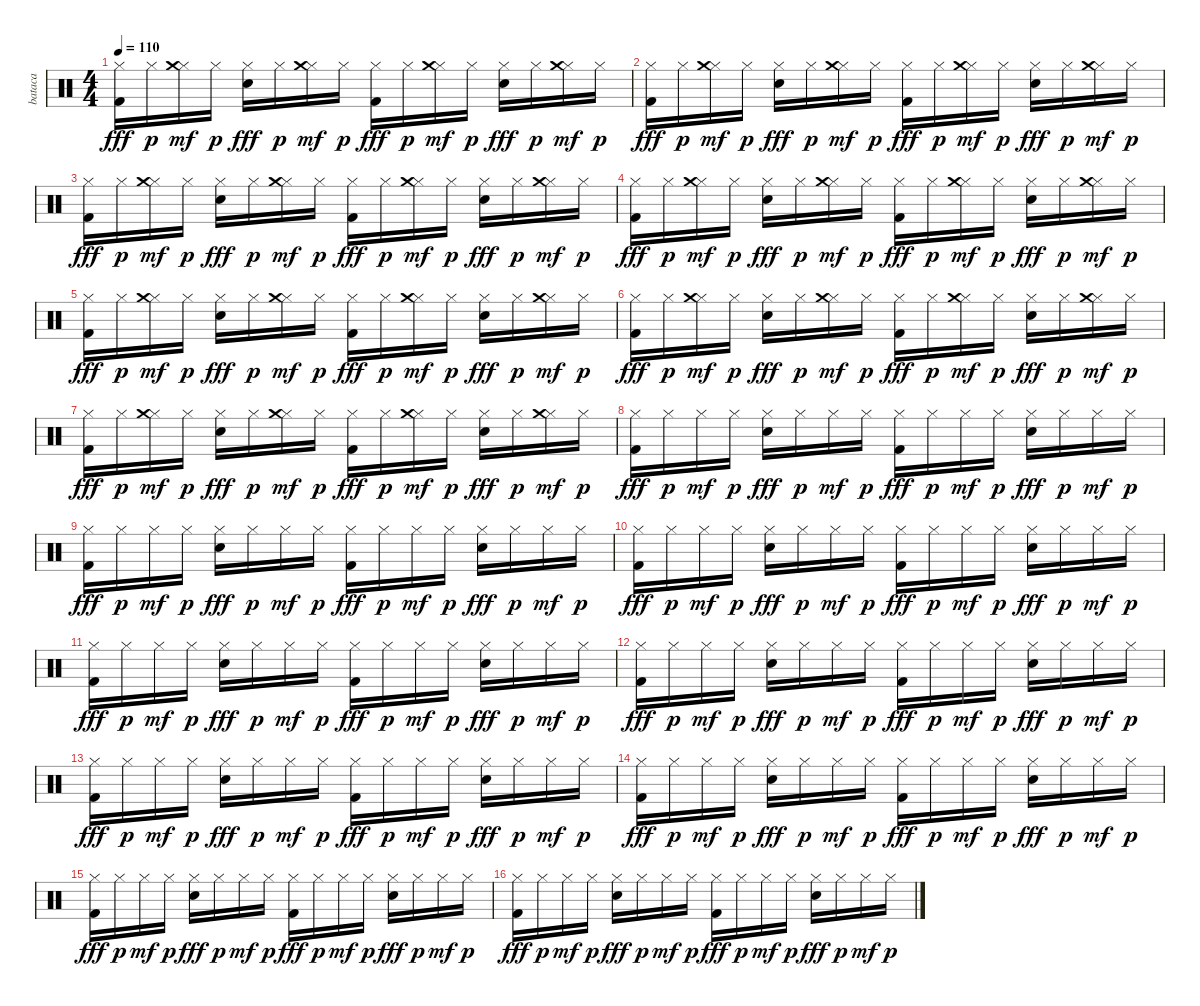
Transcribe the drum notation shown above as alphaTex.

\track ("bataca" "bataca") {instrument percussion}
\staff {score}
\articulation defaults
\ts (4 4)
\tempo 110
\clef neutral
\ks c
("Hi-Hat (closed)" "Kick (hit) 2").16{dy fff} "Hi-Hat (closed)".16{dy p} ("Hi-Hat (closed)" "Crash medium (hit)").16{dy mf} "Hi-Hat (closed)".16{dy p} ("Hi-Hat (closed)" "Electric Snare (hit)").16{dy fff} "Hi-Hat (closed)".16{dy p} ("Hi-Hat (closed)" "Crash medium (hit)").16{dy mf} "Hi-Hat (closed)".16{dy p} ("Hi-Hat (closed)" "Kick (hit) 2").16{dy fff} "Hi-Hat (closed)".16{dy p} ("Hi-Hat (closed)" "Crash medium (hit)").16{dy mf} "Hi-Hat (closed)".16{dy p} ("Hi-Hat (closed)" "Electric Snare (hit)").16{dy fff} "Hi-Hat (closed)".16{dy p} ("Hi-Hat (closed)" "Crash medium (hit)").16{dy mf} "Hi-Hat (closed)".16{dy p} |
("Hi-Hat (closed)" "Kick (hit) 2").16{dy fff} "Hi-Hat (closed)".16{dy p} ("Hi-Hat (closed)" "Crash medium (hit)").16{dy mf} "Hi-Hat (closed)".16{dy p} ("Hi-Hat (closed)" "Electric Snare (hit)").16{dy fff} "Hi-Hat (closed)".16{dy p} ("Hi-Hat (closed)" "Crash medium (hit)").16{dy mf} "Hi-Hat (closed)".16{dy p} ("Hi-Hat (closed)" "Kick (hit) 2").16{dy fff} "Hi-Hat (closed)".16{dy p} ("Hi-Hat (closed)" "Crash medium (hit)").16{dy mf} "Hi-Hat (closed)".16{dy p} ("Hi-Hat (closed)" "Electric Snare (hit)").16{dy fff} "Hi-Hat (closed)".16{dy p} ("Hi-Hat (closed)" "Crash medium (hit)").16{dy mf} "Hi-Hat (closed)".16{dy p} |
("Hi-Hat (closed)" "Kick (hit) 2").16{dy fff} "Hi-Hat (closed)".16{dy p} ("Hi-Hat (closed)" "Crash medium (hit)").16{dy mf} "Hi-Hat (closed)".16{dy p} ("Hi-Hat (closed)" "Electric Snare (hit)").16{dy fff} "Hi-Hat (closed)".16{dy p} ("Hi-Hat (closed)" "Crash medium (hit)").16{dy mf} "Hi-Hat (closed)".16{dy p} ("Hi-Hat (closed)" "Kick (hit) 2").16{dy fff} "Hi-Hat (closed)".16{dy p} ("Hi-Hat (closed)" "Crash medium (hit)").16{dy mf} "Hi-Hat (closed)".16{dy p} ("Hi-Hat (closed)" "Electric Snare (hit)").16{dy fff} "Hi-Hat (closed)".16{dy p} ("Hi-Hat (closed)" "Crash medium (hit)").16{dy mf} "Hi-Hat (closed)".16{dy p} |
("Hi-Hat (closed)" "Kick (hit) 2").16{dy fff} "Hi-Hat (closed)".16{dy p} ("Hi-Hat (closed)" "Crash medium (hit)").16{dy mf} "Hi-Hat (closed)".16{dy p} ("Hi-Hat (closed)" "Electric Snare (hit)").16{dy fff} "Hi-Hat (closed)".16{dy p} ("Hi-Hat (closed)" "Crash medium (hit)").16{dy mf} "Hi-Hat (closed)".16{dy p} ("Hi-Hat (closed)" "Kick (hit) 2").16{dy fff} "Hi-Hat (closed)".16{dy p} ("Hi-Hat (closed)" "Crash medium (hit)").16{dy mf} "Hi-Hat (closed)".16{dy p} ("Hi-Hat (closed)" "Electric Snare (hit)").16{dy fff} "Hi-Hat (closed)".16{dy p} ("Hi-Hat (closed)" "Crash medium (hit)").16{dy mf} "Hi-Hat (closed)".16{dy p} |
("Hi-Hat (closed)" "Kick (hit) 2").16{dy fff} "Hi-Hat (closed)".16{dy p} ("Hi-Hat (closed)" "Crash medium (hit)").16{dy mf} "Hi-Hat (closed)".16{dy p} ("Hi-Hat (closed)" "Electric Snare (hit)").16{dy fff} "Hi-Hat (closed)".16{dy p} ("Hi-Hat (closed)" "Crash medium (hit)").16{dy mf} "Hi-Hat (closed)".16{dy p} ("Hi-Hat (closed)" "Kick (hit) 2").16{dy fff} "Hi-Hat (closed)".16{dy p} ("Hi-Hat (closed)" "Crash medium (hit)").16{dy mf} "Hi-Hat (closed)".16{dy p} ("Hi-Hat (closed)" "Electric Snare (hit)").16{dy fff} "Hi-Hat (closed)".16{dy p} ("Hi-Hat (closed)" "Crash medium (hit)").16{dy mf} "Hi-Hat (closed)".16{dy p} |
("Hi-Hat (closed)" "Kick (hit) 2").16{dy fff} "Hi-Hat (closed)".16{dy p} ("Hi-Hat (closed)" "Crash medium (hit)").16{dy mf} "Hi-Hat (closed)".16{dy p} ("Hi-Hat (closed)" "Electric Snare (hit)").16{dy fff} "Hi-Hat (closed)".16{dy p} ("Hi-Hat (closed)" "Crash medium (hit)").16{dy mf} "Hi-Hat (closed)".16{dy p} ("Hi-Hat (closed)" "Kick (hit) 2").16{dy fff} "Hi-Hat (closed)".16{dy p} ("Hi-Hat (closed)" "Crash medium (hit)").16{dy mf} "Hi-Hat (closed)".16{dy p} ("Hi-Hat (closed)" "Electric Snare (hit)").16{dy fff} "Hi-Hat (closed)".16{dy p} ("Hi-Hat (closed)" "Crash medium (hit)").16{dy mf} "Hi-Hat (closed)".16{dy p} |
("Hi-Hat (closed)" "Kick (hit) 2").16{dy fff} "Hi-Hat (closed)".16{dy p} ("Hi-Hat (closed)" "Crash medium (hit)").16{dy mf} "Hi-Hat (closed)".16{dy p} ("Hi-Hat (closed)" "Electric Snare (hit)").16{dy fff} "Hi-Hat (closed)".16{dy p} ("Hi-Hat (closed)" "Crash medium (hit)").16{dy mf} "Hi-Hat (closed)".16{dy p} ("Hi-Hat (closed)" "Kick (hit) 2").16{dy fff} "Hi-Hat (closed)".16{dy p} ("Hi-Hat (closed)" "Crash medium (hit)").16{dy mf} "Hi-Hat (closed)".16{dy p} ("Hi-Hat (closed)" "Electric Snare (hit)").16{dy fff} "Hi-Hat (closed)".16{dy p} ("Hi-Hat (closed)" "Crash medium (hit)").16{dy mf} "Hi-Hat (closed)".16{dy p} |
("Hi-Hat (closed)" "Kick (hit) 2").16{dy fff} "Hi-Hat (closed)".16{dy p} "Hi-Hat (closed)".16{dy mf} "Hi-Hat (closed)".16{dy p} ("Hi-Hat (closed)" "Electric Snare (hit)").16{dy fff} "Hi-Hat (closed)".16{dy p} "Hi-Hat (closed)".16{dy mf} "Hi-Hat (closed)".16{dy p} ("Hi-Hat (closed)" "Kick (hit) 2").16{dy fff} "Hi-Hat (closed)".16{dy p} "Hi-Hat (closed)".16{dy mf} "Hi-Hat (closed)".16{dy p} ("Hi-Hat (closed)" "Electric Snare (hit)").16{dy fff} "Hi-Hat (closed)".16{dy p} "Hi-Hat (closed)".16{dy mf} "Hi-Hat (closed)".16{dy p} |
("Hi-Hat (closed)" "Kick (hit) 2").16{dy fff} "Hi-Hat (closed)".16{dy p} "Hi-Hat (closed)".16{dy mf} "Hi-Hat (closed)".16{dy p} ("Hi-Hat (closed)" "Electric Snare (hit)").16{dy fff} "Hi-Hat (closed)".16{dy p} "Hi-Hat (closed)".16{dy mf} "Hi-Hat (closed)".16{dy p} ("Hi-Hat (closed)" "Kick (hit) 2").16{dy fff} "Hi-Hat (closed)".16{dy p} "Hi-Hat (closed)".16{dy mf} "Hi-Hat (closed)".16{dy p} ("Hi-Hat (closed)" "Electric Snare (hit)").16{dy fff} "Hi-Hat (closed)".16{dy p} "Hi-Hat (closed)".16{dy mf} "Hi-Hat (closed)".16{dy p} |
("Hi-Hat (closed)" "Kick (hit) 2").16{dy fff} "Hi-Hat (closed)".16{dy p} "Hi-Hat (closed)".16{dy mf} "Hi-Hat (closed)".16{dy p} ("Hi-Hat (closed)" "Electric Snare (hit)").16{dy fff} "Hi-Hat (closed)".16{dy p} "Hi-Hat (closed)".16{dy mf} "Hi-Hat (closed)".16{dy p} ("Hi-Hat (closed)" "Kick (hit) 2").16{dy fff} "Hi-Hat (closed)".16{dy p} "Hi-Hat (closed)".16{dy mf} "Hi-Hat (closed)".16{dy p} ("Hi-Hat (closed)" "Electric Snare (hit)").16{dy fff} "Hi-Hat (closed)".16{dy p} "Hi-Hat (closed)".16{dy mf} "Hi-Hat (closed)".16{dy p} |
("Hi-Hat (closed)" "Kick (hit) 2").16{dy fff} "Hi-Hat (closed)".16{dy p} "Hi-Hat (closed)".16{dy mf} "Hi-Hat (closed)".16{dy p} ("Hi-Hat (closed)" "Electric Snare (hit)").16{dy fff} "Hi-Hat (closed)".16{dy p} "Hi-Hat (closed)".16{dy mf} "Hi-Hat (closed)".16{dy p} ("Hi-Hat (closed)" "Kick (hit) 2").16{dy fff} "Hi-Hat (closed)".16{dy p} "Hi-Hat (closed)".16{dy mf} "Hi-Hat (closed)".16{dy p} ("Hi-Hat (closed)" "Electric Snare (hit)").16{dy fff} "Hi-Hat (closed)".16{dy p} "Hi-Hat (closed)".16{dy mf} "Hi-Hat (closed)".16{dy p} |
("Hi-Hat (closed)" "Kick (hit) 2").16{dy fff} "Hi-Hat (closed)".16{dy p} "Hi-Hat (closed)".16{dy mf} "Hi-Hat (closed)".16{dy p} ("Hi-Hat (closed)" "Electric Snare (hit)").16{dy fff} "Hi-Hat (closed)".16{dy p} "Hi-Hat (closed)".16{dy mf} "Hi-Hat (closed)".16{dy p} ("Hi-Hat (closed)" "Kick (hit) 2").16{dy fff} "Hi-Hat (closed)".16{dy p} "Hi-Hat (closed)".16{dy mf} "Hi-Hat (closed)".16{dy p} ("Hi-Hat (closed)" "Electric Snare (hit)").16{dy fff} "Hi-Hat (closed)".16{dy p} "Hi-Hat (closed)".16{dy mf} "Hi-Hat (closed)".16{dy p} |
("Hi-Hat (closed)" "Kick (hit) 2").16{dy fff} "Hi-Hat (closed)".16{dy p} "Hi-Hat (closed)".16{dy mf} "Hi-Hat (closed)".16{dy p} ("Hi-Hat (closed)" "Electric Snare (hit)").16{dy fff} "Hi-Hat (closed)".16{dy p} "Hi-Hat (closed)".16{dy mf} "Hi-Hat (closed)".16{dy p} ("Hi-Hat (closed)" "Kick (hit) 2").16{dy fff} "Hi-Hat (closed)".16{dy p} "Hi-Hat (closed)".16{dy mf} "Hi-Hat (closed)".16{dy p} ("Hi-Hat (closed)" "Electric Snare (hit)").16{dy fff} "Hi-Hat (closed)".16{dy p} "Hi-Hat (closed)".16{dy mf} "Hi-Hat (closed)".16{dy p} |
("Hi-Hat (closed)" "Kick (hit) 2").16{dy fff} "Hi-Hat (closed)".16{dy p} "Hi-Hat (closed)".16{dy mf} "Hi-Hat (closed)".16{dy p} ("Hi-Hat (closed)" "Electric Snare (hit)").16{dy fff} "Hi-Hat (closed)".16{dy p} "Hi-Hat (closed)".16{dy mf} "Hi-Hat (closed)".16{dy p} ("Hi-Hat (closed)" "Kick (hit) 2").16{dy fff} "Hi-Hat (closed)".16{dy p} "Hi-Hat (closed)".16{dy mf} "Hi-Hat (closed)".16{dy p} ("Hi-Hat (closed)" "Electric Snare (hit)").16{dy fff} "Hi-Hat (closed)".16{dy p} "Hi-Hat (closed)".16{dy mf} "Hi-Hat (closed)".16{dy p} |
("Hi-Hat (closed)" "Kick (hit) 2").16{dy fff} "Hi-Hat (closed)".16{dy p} "Hi-Hat (closed)".16{dy mf} "Hi-Hat (closed)".16{dy p} ("Hi-Hat (closed)" "Electric Snare (hit)").16{dy fff} "Hi-Hat (closed)".16{dy p} "Hi-Hat (closed)".16{dy mf} "Hi-Hat (closed)".16{dy p} ("Hi-Hat (closed)" "Kick (hit) 2").16{dy fff} "Hi-Hat (closed)".16{dy p} "Hi-Hat (closed)".16{dy mf} "Hi-Hat (closed)".16{dy p} ("Hi-Hat (closed)" "Electric Snare (hit)").16{dy fff} "Hi-Hat (closed)".16{dy p} "Hi-Hat (closed)".16{dy mf} "Hi-Hat (closed)".16{dy p} |
("Hi-Hat (closed)" "Kick (hit) 2").16{dy fff} "Hi-Hat (closed)".16{dy p} "Hi-Hat (closed)".16{dy mf} "Hi-Hat (closed)".16{dy p} ("Hi-Hat (closed)" "Electric Snare (hit)").16{dy fff} "Hi-Hat (closed)".16{dy p} "Hi-Hat (closed)".16{dy mf} "Hi-Hat (closed)".16{dy p} ("Hi-Hat (closed)" "Kick (hit) 2").16{dy fff} "Hi-Hat (closed)".16{dy p} "Hi-Hat (closed)".16{dy mf} "Hi-Hat (closed)".16{dy p} ("Hi-Hat (closed)" "Electric Snare (hit)").16{dy fff} "Hi-Hat (closed)".16{dy p} "Hi-Hat (closed)".16{dy mf} "Hi-Hat (closed)".16{dy p}
